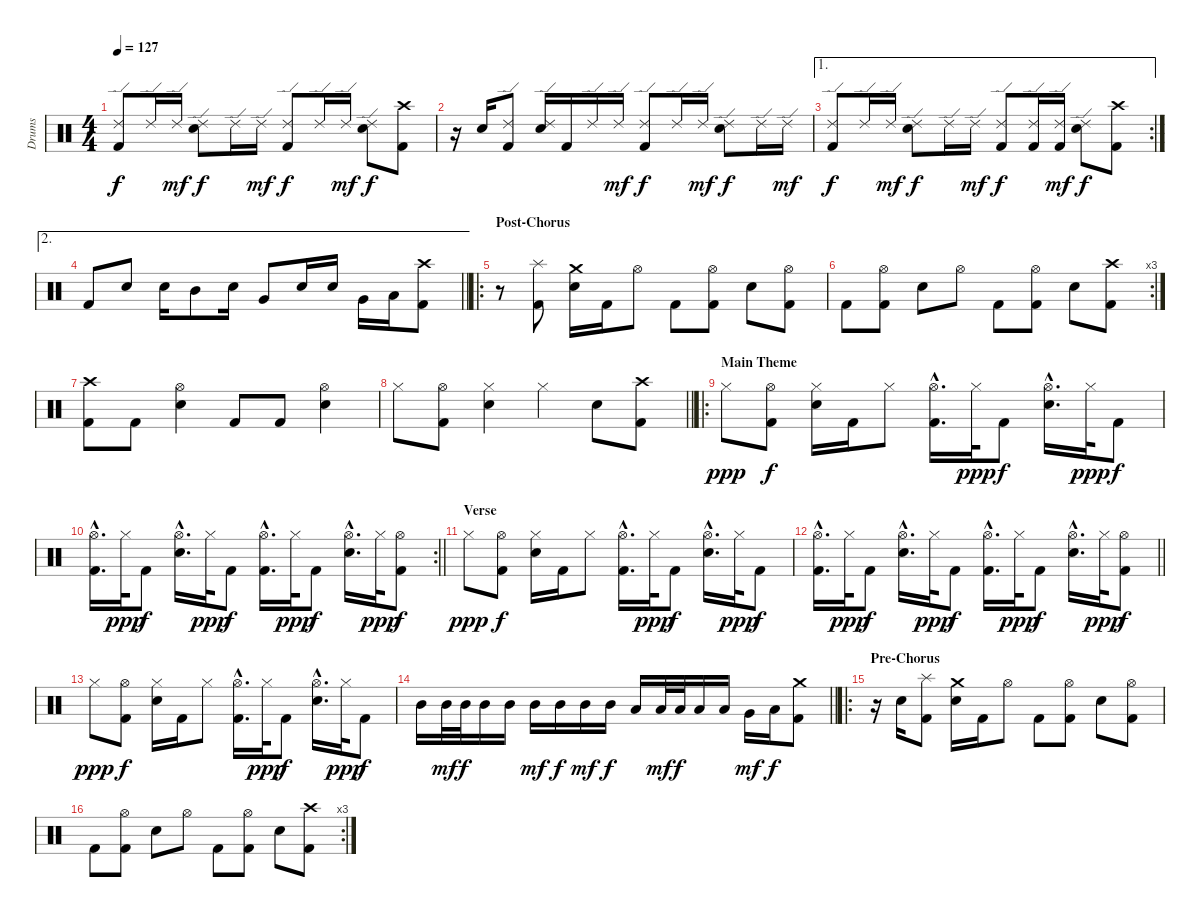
\track ("Drums" "Drums") {instrument percussion}
\staff {score}
\articulation defaults
\ts (4 4)
\tempo 127
\clef neutral
\ks c
("Ride (edge) 2" "Kick (hit) 2").8{dy f} "Ride (edge) 2".16 "Ride (edge) 2".16{dy mf} ("Ride (edge) 2" "Electric Snare (hit)").8{dy f} "Ride (edge) 2".16 "Ride (edge) 2".16{dy mf} ("Ride (edge) 2" "Kick (hit) 2").8{dy f} "Ride (edge) 2".16 "Ride (edge) 2".16{dy mf} ("Ride (edge) 2" "Electric Snare (hit)").8{dy f} ("Crash high (hit)" "Kick (hit) 2").8 |
r.16 "Electric Snare (hit)".16 ("Ride (edge) 2" "Kick (hit) 2").8 ("Ride (edge) 2" "Electric Snare (hit)").16 "Kick (hit) 2".16 "Ride (edge) 2".16 "Ride (edge) 2".16{dy mf} ("Ride (edge) 2" "Kick (hit) 2").8{dy f} "Ride (edge) 2".16 "Ride (edge) 2".16{dy mf} ("Ride (edge) 2" "Electric Snare (hit)").8{dy f} "Ride (edge) 2".16 "Ride (edge) 2".16{dy mf} |
\ae 1
\rc 2
("Ride (edge) 2" "Kick (hit) 2").8{dy f} "Ride (edge) 2".16 "Ride (edge) 2".16{dy mf} ("Ride (edge) 2" "Electric Snare (hit)").8{dy f} "Ride (edge) 2".16 "Ride (edge) 2".16{dy mf} ("Ride (edge) 2" "Kick (hit) 2").8{dy f} ("Ride (edge) 2" "Kick (hit) 2").16 ("Ride (edge) 2" "Kick (hit) 2").16{dy mf} ("Ride (edge) 2" "Electric Snare (hit)").8{dy f} ("Crash high (hit)" "Kick (hit) 2").8 |
\ae 2
\barLineRight lightlight "Kick (hit) 2".8 "Electric Snare (hit)".8 "Electric Snare (hit)".16 "Mid Tom (hit)".8 "Electric Snare (hit)".16 "Very Low Tom (hit)".8 "Electric Snare (hit)".16 "Electric Snare (hit)".16 "Very Low Tom (hit)".16 "Low Floor Tom (hit)".16
("Crash high (hit)" "Kick (hit) 2").8 |
\ro
\section ("" "Post-Chorus")
r.8 ("Splash (hit)" "Kick (hit) 2").8 ("Crash medium (hit)" "Electric Snare (hit)").16 "Kick (hit) 2".16 "Hi-Hat (open)".8 "Kick (hit) 2".8 ("Hi-Hat (open)" "Kick (hit) 2").8 "Electric Snare (hit)".8 ("Hi-Hat (open)" "Kick (hit) 2").8 |
\rc 3 "Kick (hit) 2".8
("Hi-Hat (open)" "Kick (hit) 2").8 "Electric Snare (hit)".8 "Hi-Hat (open)".8 "Kick (hit) 2".8 ("Hi-Hat (open)" "Kick (hit) 2").8 "Electric Snare (hit)".8 ("Crash high (hit)" "Kick (hit) 2").8 |
("Crash high (hit)" "Kick (hit) 2").8 "Kick (hit) 2".8 ("Hi-Hat (open)" "Electric Snare (hit)").4 "Kick (hit) 2".8 "Kick (hit) 2".8 ("Hi-Hat (open)" "Electric Snare (hit)").4 |
\barLineRight lightlight "Hi-Hat (closed)".8
("Hi-Hat (open)" "Kick (hit) 2").8 ("Hi-Hat (closed)" "Electric Snare (hit)").4 "Hi-Hat (closed)".4 "Electric Snare (hit)".8 ("Crash high (hit)" "Kick (hit) 2").8 |
\ro
\section ("" "Main Theme")
"Hi-Hat (closed)".8{dy ppp} ("Hi-Hat (open)" "Kick (hit) 2").8{dy f} ("Hi-Hat (closed)" "Electric Snare (hit)").16 "Kick (hit) 2".16 "Hi-Hat (closed)".8 ("Hi-Hat (open)"{hac} "Kick (hit) 2"{hac}).16{d} "Hi-Hat (closed)".32{dy ppp} "Kick (hit) 2".8{dy f} ("Hi-Hat (open)"{hac} "Electric Snare (hit)"{hac}).16{d} "Hi-Hat (closed)".32{dy ppp} "Kick (hit) 2".8{dy f} |
\rc 2
\barLineRight lightlight
("Hi-Hat (open)"{hac} "Kick (hit) 2"{hac}).16{d} "Hi-Hat (closed)".32{dy ppp} "Kick (hit) 2".8{dy f} ("Hi-Hat (open)"{hac} "Electric Snare (hit)"{hac}).16{d} "Hi-Hat (closed)".32{dy ppp} "Kick (hit) 2".8{dy f} ("Hi-Hat (open)"{hac} "Kick (hit) 2"{hac}).16{d} "Hi-Hat (closed)".32{dy ppp} "Kick (hit) 2".8{dy f} ("Hi-Hat (open)"{hac} "Electric Snare (hit)"{hac}).16{d} "Hi-Hat (closed)".32{dy ppp} ("Hi-Hat (open)" "Kick (hit) 2").8{dy f} |
\section ("" "Verse")
"Hi-Hat (closed)".8{dy ppp} ("Hi-Hat (open)" "Kick (hit) 2").8{dy f} ("Hi-Hat (closed)" "Electric Snare (hit)").16 "Kick (hit) 2".16 "Hi-Hat (closed)".8 ("Hi-Hat (open)"{hac} "Kick (hit) 2"{hac}).16{d} "Hi-Hat (closed)".32{dy ppp} "Kick (hit) 2".8{dy f} ("Hi-Hat (open)"{hac} "Electric Snare (hit)"{hac}).16{d} "Hi-Hat (closed)".32{dy ppp} "Kick (hit) 2".8{dy f} |
\barLineRight lightlight
("Hi-Hat (open)"{hac} "Kick (hit) 2"{hac}).16{d} "Hi-Hat (closed)".32{dy ppp} "Kick (hit) 2".8{dy f} ("Hi-Hat (open)"{hac} "Electric Snare (hit)"{hac}).16{d} "Hi-Hat (closed)".32{dy ppp} "Kick (hit) 2".8{dy f} ("Hi-Hat (open)"{hac} "Kick (hit) 2"{hac}).16{d} "Hi-Hat (closed)".32{dy ppp} "Kick (hit) 2".8{dy f} ("Hi-Hat (open)"{hac} "Electric Snare (hit)"{hac}).16{d} "Hi-Hat (closed)".32{dy ppp} ("Hi-Hat (open)" "Kick (hit) 2").8{dy f} |
"Hi-Hat (closed)".8{dy ppp} ("Hi-Hat (open)" "Kick (hit) 2").8{dy f} ("Hi-Hat (closed)" "Electric Snare (hit)").16 "Kick (hit) 2".16 "Hi-Hat (closed)".8 ("Hi-Hat (open)"{hac} "Kick (hit) 2"{hac}).16{d} "Hi-Hat (closed)".32{dy ppp} "Kick (hit) 2".8{dy f} ("Hi-Hat (open)"{hac} "Electric Snare (hit)"{hac}).16{d} "Hi-Hat (closed)".32{dy ppp} "Kick (hit) 2".8{dy f} |
\barLineRight lightlight "Mid Tom (hit)".16 "Mid Tom (hit)".32{dy mf} "Mid Tom (hit)".32{dy f} "Mid Tom (hit)".16 "Mid Tom (hit)".16 "Mid Tom (hit)".16{dy mf} "Mid Tom (hit)".16{dy f} "Mid Tom (hit)".16{dy mf} "Mid Tom (hit)".16{dy f} "Low Tom (hit)".16 "Low Tom (hit)".32{dy mf} "Low Tom (hit)".32{dy f} "Low Tom (hit)".16 "Low Tom (hit)".16 "Very Low Tom (hit)".16{dy mf} "Low Floor Tom (hit)".16{dy f}
("Kick (hit) 2" "Crash medium (hit)").8 |
\ro
\section ("" "Pre-Chorus")
r.16 "Electric Snare (hit)".16 ("Splash (hit)" "Kick (hit) 2").8 ("Crash medium (hit)" "Electric Snare (hit)").16 "Kick (hit) 2".16 "Hi-Hat (open)".8 "Kick (hit) 2".8 ("Hi-Hat (open)" "Kick (hit) 2").8 "Electric Snare (hit)".8 ("Hi-Hat (open)" "Kick (hit) 2").8 |
\rc 3 "Kick (hit) 2".8
("Hi-Hat (open)" "Kick (hit) 2").8 "Electric Snare (hit)".8 "Hi-Hat (open)".8 "Kick (hit) 2".8 ("Hi-Hat (open)" "Kick (hit) 2").8 "Electric Snare (hit)".8 ("Crash high (hit)" "Kick (hit) 2").8
